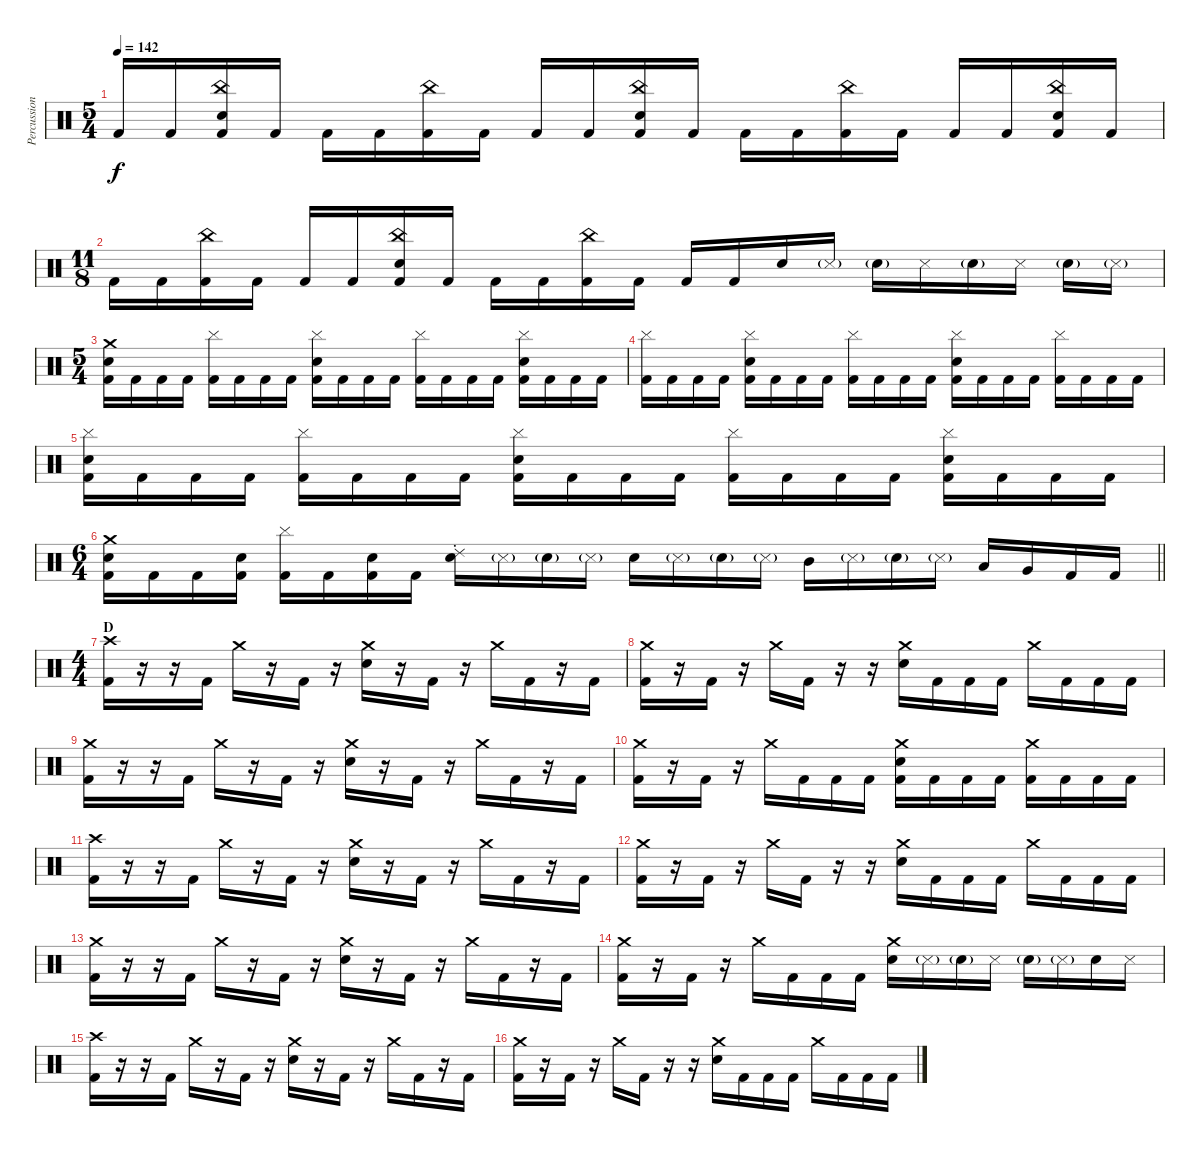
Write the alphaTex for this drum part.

\track ("Percussion" "Percussion") {instrument percussion}
\staff {score}
\articulation defaults
\ts (5 4)
\tempo 142
\clef neutral
\ks c "Kick (hit) 2".16{dy f} "Kick (hit) 2".16
("China (hit)" "Snare (hit) 2" "Kick (hit) 2").16 "Kick (hit) 2".16 "Kick (hit) 2".16 "Kick (hit) 2".16 ("China (hit)" "Kick (hit) 2").16 "Kick (hit) 2".16 "Kick (hit) 2".16 "Kick (hit) 2".16 ("China (hit)" "Snare (hit) 2" "Kick (hit) 2").16 "Kick (hit) 2".16 "Kick (hit) 2".16 "Kick (hit) 2".16 ("China (hit)" "Kick (hit) 2").16 "Kick (hit) 2".16 "Kick (hit) 2".16 "Kick (hit) 2".16 ("China (hit)" "Snare (hit) 2" "Kick (hit) 2").16 "Kick (hit) 2".16 |
\ts (11 8)
"Kick (hit) 2".16 "Kick (hit) 2".16 ("China (hit)" "Kick (hit) 2").16 "Kick (hit) 2".16 "Kick (hit) 2".16 "Kick (hit) 2".16 ("China (hit)" "Snare (hit) 2" "Kick (hit) 2").16 "Kick (hit) 2".16 "Kick (hit) 2".16 "Kick (hit) 2".16 ("China (hit)" "Kick (hit) 2").16 "Kick (hit) 2".16 "Kick (hit) 2".16 "Kick (hit) 2".16 "Snare (hit) 2".16 "Metronome (hit)"{g}.16 "Snare (hit) 2"{g}.16 "Metronome (hit)".16 "Snare (hit) 2"{g}.16 "Metronome (hit)".16 "Snare (hit) 2"{g}.16 "Metronome (hit)"{g}.16 |
\ts (5 4)
("Crash medium (hit)" "Snare (hit) 2" "Kick (hit) 2").16 "Kick (hit) 2".16 "Kick (hit) 2".16 "Kick (hit) 2".16 ("Cymbal (hit)" "Kick (hit) 2").16 "Kick (hit) 2".16 "Kick (hit) 2".16 "Kick (hit) 2".16 ("Cymbal (hit)" "Snare (hit) 2" "Kick (hit) 2").16 "Kick (hit) 2".16 "Kick (hit) 2".16 "Kick (hit) 2".16 ("Cymbal (hit)" "Kick (hit) 2").16 "Kick (hit) 2".16 "Kick (hit) 2".16 "Kick (hit) 2".16 ("Cymbal (hit)" "Snare (hit) 2" "Kick (hit) 2").16 "Kick (hit) 2".16 "Kick (hit) 2".16 "Kick (hit) 2".16 |
("Cymbal (hit)" "Kick (hit) 2").16 "Kick (hit) 2".16 "Kick (hit) 2".16 "Kick (hit) 2".16 ("Cymbal (hit)" "Snare (hit) 2" "Kick (hit) 2").16 "Kick (hit) 2".16 "Kick (hit) 2".16 "Kick (hit) 2".16 ("Cymbal (hit)" "Kick (hit) 2").16 "Kick (hit) 2".16 "Kick (hit) 2".16 "Kick (hit) 2".16 ("Cymbal (hit)" "Snare (hit) 2" "Kick (hit) 2").16 "Kick (hit) 2".16 "Kick (hit) 2".16 "Kick (hit) 2".16 ("Cymbal (hit)" "Kick (hit) 2").16 "Kick (hit) 2".16 "Kick (hit) 2".16 "Kick (hit) 2".16 |
("Cymbal (hit)" "Snare (hit) 2" "Kick (hit) 2").16 "Kick (hit) 2".16 "Kick (hit) 2".16 "Kick (hit) 2".16 ("Cymbal (hit)" "Kick (hit) 2").16 "Kick (hit) 2".16 "Kick (hit) 2".16 "Kick (hit) 2".16 ("Cymbal (hit)" "Snare (hit) 2" "Kick (hit) 2").16 "Kick (hit) 2".16 "Kick (hit) 2".16 "Kick (hit) 2".16 ("Cymbal (hit)" "Kick (hit) 2").16 "Kick (hit) 2".16 "Kick (hit) 2".16 "Kick (hit) 2".16 ("Cymbal (hit)" "Snare (hit) 2" "Kick (hit) 2").16 "Kick (hit) 2".16 "Kick (hit) 2".16 "Kick (hit) 2".16 |
\ts (6 4)
\barLineRight lightlight
("Crash medium (hit)" "Snare (hit) 2" "Kick (hit) 2").16 "Kick (hit) 2".16 "Kick (hit) 2".16 ("Snare (hit) 2" "Kick (hit) 2").16 ("Cymbal (hit)" "Kick (hit) 2").16 "Kick (hit) 2".16 ("Snare (hit) 2" "Kick (hit) 2").16 "Kick (hit) 2".16 ("Ride (choke) 2" "Snare (hit) 2").16 "Metronome (hit)"{g}.16 "Snare (hit) 2"{g}.16 "Metronome (hit)"{g}.16 "Snare (hit) 2".16 "Metronome (hit)"{g}.16 "Snare (hit) 2"{g}.16 "Metronome (hit)"{g}.16 "Mid Tom (hit)".16 "Metronome (hit)"{g}.16 "Snare (hit) 2"{g}.16 "Metronome (hit)"{g}.16 "Low Tom (hit)".16 "Very Low Tom (hit)".16 "Kick (hit) 2".16 "Kick (hit) 2".16 |
\ts (4 4)
\section ("" "D")
("Crash high (hit)" "Kick (hit) 2").16 r.16 r.16 "Kick (hit) 2".16 "Crash medium (hit)".16 r.16 "Kick (hit) 2".16 r.16 ("Crash medium (hit)" "Snare (hit) 2").16 r.16 "Kick (hit) 2".16 r.16 "Crash medium (hit)".16 "Kick (hit) 2".16 r.16 "Kick (hit) 2".16 |
("Crash medium (hit)" "Kick (hit) 2").16 r.16 "Kick (hit) 2".16 r.16 "Crash medium (hit)".16 "Kick (hit) 2".16 r.16 r.16 ("Crash medium (hit)" "Snare (hit) 2").16 "Kick (hit) 2".16 "Kick (hit) 2".16 "Kick (hit) 2".16 "Crash medium (hit)".16 "Kick (hit) 2".16 "Kick (hit) 2".16 "Kick (hit) 2".16 |
("Crash medium (hit)" "Kick (hit) 2").16 r.16 r.16 "Kick (hit) 2".16 "Crash medium (hit)".16 r.16 "Kick (hit) 2".16 r.16 ("Crash medium (hit)" "Snare (hit) 2").16 r.16 "Kick (hit) 2".16 r.16 "Crash medium (hit)".16 "Kick (hit) 2".16 r.16 "Kick (hit) 2".16 |
("Crash medium (hit)" "Kick (hit) 2").16 r.16 "Kick (hit) 2".16 r.16 "Crash medium (hit)".16 "Kick (hit) 2".16 "Kick (hit) 2".16 "Kick (hit) 2".16 ("Crash medium (hit)" "Snare (hit) 2" "Kick (hit) 2").16 "Kick (hit) 2".16 "Kick (hit) 2".16 "Kick (hit) 2".16 ("Crash medium (hit)" "Kick (hit) 2").16 "Kick (hit) 2".16 "Kick (hit) 2".16 "Kick (hit) 2".16 |
("Crash high (hit)" "Kick (hit) 2").16 r.16 r.16 "Kick (hit) 2".16 "Crash medium (hit)".16 r.16 "Kick (hit) 2".16 r.16 ("Crash medium (hit)" "Snare (hit) 2").16 r.16 "Kick (hit) 2".16 r.16 "Crash medium (hit)".16 "Kick (hit) 2".16 r.16 "Kick (hit) 2".16 |
("Crash medium (hit)" "Kick (hit) 2").16 r.16 "Kick (hit) 2".16 r.16 "Crash medium (hit)".16 "Kick (hit) 2".16 r.16 r.16 ("Crash medium (hit)" "Snare (hit) 2").16 "Kick (hit) 2".16 "Kick (hit) 2".16 "Kick (hit) 2".16 "Crash medium (hit)".16 "Kick (hit) 2".16 "Kick (hit) 2".16 "Kick (hit) 2".16 |
("Crash medium (hit)" "Kick (hit) 2").16 r.16 r.16 "Kick (hit) 2".16 "Crash medium (hit)".16 r.16 "Kick (hit) 2".16 r.16 ("Crash medium (hit)" "Snare (hit) 2").16 r.16 "Kick (hit) 2".16 r.16 "Crash medium (hit)".16 "Kick (hit) 2".16 r.16 "Kick (hit) 2".16 |
("Crash medium (hit)" "Kick (hit) 2").16 r.16 "Kick (hit) 2".16 r.16 "Crash medium (hit)".16 "Kick (hit) 2".16 "Kick (hit) 2".16 "Kick (hit) 2".16 ("Crash medium (hit)" "Snare (hit) 2").16 "Metronome (hit)"{g}.16 "Snare (hit) 2"{g}.16 "Metronome (hit)".16 "Snare (hit) 2"{g}.16 "Metronome (hit)"{g}.16 "Snare (hit) 2".16 "Metronome (hit)".16 |
("Crash high (hit)" "Kick (hit) 2").16 r.16 r.16 "Kick (hit) 2".16 "Crash medium (hit)".16 r.16 "Kick (hit) 2".16 r.16 ("Crash medium (hit)" "Snare (hit) 2").16 r.16 "Kick (hit) 2".16 r.16 "Crash medium (hit)".16 "Kick (hit) 2".16 r.16 "Kick (hit) 2".16 |
("Crash medium (hit)" "Kick (hit) 2").16 r.16 "Kick (hit) 2".16 r.16 "Crash medium (hit)".16 "Kick (hit) 2".16 r.16 r.16 ("Crash medium (hit)" "Snare (hit) 2").16 "Kick (hit) 2".16 "Kick (hit) 2".16 "Kick (hit) 2".16 "Crash medium (hit)".16 "Kick (hit) 2".16 "Kick (hit) 2".16 "Kick (hit) 2".16
